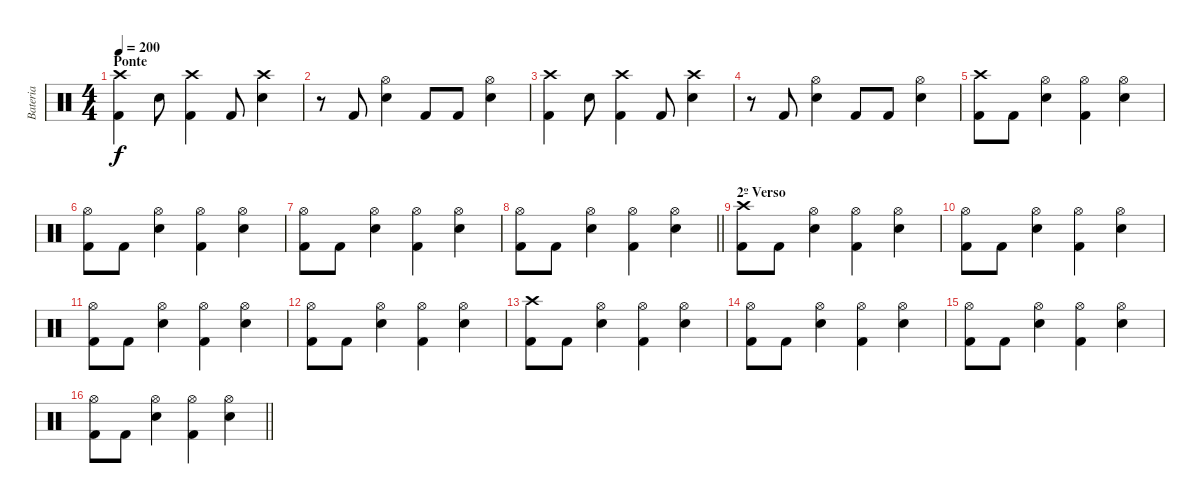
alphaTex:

\track ("Bateria" "Bateria") {instrument percussion}
\staff {score}
\articulation defaults
\ts (4 4)
\section ("" "Ponte")
\tempo 200
\clef neutral
\ks c
("Crash high (hit)" "Kick (hit) 2").4{dy f} "Electric Snare (hit)".8 ("Crash high (hit)" "Kick (hit) 2").4 "Kick (hit) 2".8 ("Crash high (hit)" "Electric Snare (hit)").4 |
r.8 "Kick (hit) 2".8 ("Hi-Hat (open)" "Electric Snare (hit)").4 "Kick (hit) 2".8 "Kick (hit) 2".8 ("Hi-Hat (open)" "Electric Snare (hit)").4 |
("Crash high (hit)" "Kick (hit) 2").4 "Electric Snare (hit)".8 ("Crash high (hit)" "Kick (hit) 2").4 "Kick (hit) 2".8 ("Crash high (hit)" "Electric Snare (hit)").4 |
r.8 "Kick (hit) 2".8 ("Hi-Hat (open)" "Electric Snare (hit)").4 "Kick (hit) 2".8 "Kick (hit) 2".8 ("Hi-Hat (open)" "Electric Snare (hit)").4 |
("Crash high (hit)" "Kick (hit) 2").8 "Kick (hit) 2".8 ("Hi-Hat (open)" "Electric Snare (hit)").4 ("Hi-Hat (open)" "Kick (hit) 2").4 ("Hi-Hat (open)" "Electric Snare (hit)").4 |
("Hi-Hat (open)" "Kick (hit) 2").8 "Kick (hit) 2".8 ("Hi-Hat (open)" "Electric Snare (hit)").4 ("Hi-Hat (open)" "Kick (hit) 2").4 ("Hi-Hat (open)" "Electric Snare (hit)").4 |
("Hi-Hat (open)" "Kick (hit) 2").8 "Kick (hit) 2".8 ("Hi-Hat (open)" "Electric Snare (hit)").4 ("Hi-Hat (open)" "Kick (hit) 2").4 ("Hi-Hat (open)" "Electric Snare (hit)").4 |
\barLineRight lightlight
("Hi-Hat (open)" "Kick (hit) 2").8 "Kick (hit) 2".8 ("Hi-Hat (open)" "Electric Snare (hit)").4 ("Hi-Hat (open)" "Kick (hit) 2").4 ("Hi-Hat (open)" "Electric Snare (hit)").4 |
\section ("" "2º Verso")
("Crash high (hit)" "Kick (hit) 2").8 "Kick (hit) 2".8 ("Hi-Hat (open)" "Electric Snare (hit)").4 ("Hi-Hat (open)" "Kick (hit) 2").4 ("Hi-Hat (open)" "Electric Snare (hit)").4 |
("Hi-Hat (open)" "Kick (hit) 2").8 "Kick (hit) 2".8 ("Hi-Hat (open)" "Electric Snare (hit)").4 ("Hi-Hat (open)" "Kick (hit) 2").4 ("Hi-Hat (open)" "Electric Snare (hit)").4 |
("Hi-Hat (open)" "Kick (hit) 2").8 "Kick (hit) 2".8 ("Hi-Hat (open)" "Electric Snare (hit)").4 ("Hi-Hat (open)" "Kick (hit) 2").4 ("Hi-Hat (open)" "Electric Snare (hit)").4 |
("Hi-Hat (open)" "Kick (hit) 2").8 "Kick (hit) 2".8 ("Hi-Hat (open)" "Electric Snare (hit)").4 ("Hi-Hat (open)" "Kick (hit) 2").4 ("Hi-Hat (open)" "Electric Snare (hit)").4 |
("Crash high (hit)" "Kick (hit) 2").8 "Kick (hit) 2".8 ("Hi-Hat (open)" "Electric Snare (hit)").4 ("Hi-Hat (open)" "Kick (hit) 2").4 ("Hi-Hat (open)" "Electric Snare (hit)").4 |
("Hi-Hat (open)" "Kick (hit) 2").8 "Kick (hit) 2".8 ("Hi-Hat (open)" "Electric Snare (hit)").4 ("Hi-Hat (open)" "Kick (hit) 2").4 ("Hi-Hat (open)" "Electric Snare (hit)").4 |
("Hi-Hat (open)" "Kick (hit) 2").8 "Kick (hit) 2".8 ("Hi-Hat (open)" "Electric Snare (hit)").4 ("Hi-Hat (open)" "Kick (hit) 2").4 ("Hi-Hat (open)" "Electric Snare (hit)").4 |
\barLineRight lightlight
("Hi-Hat (open)" "Kick (hit) 2").8 "Kick (hit) 2".8 ("Hi-Hat (open)" "Electric Snare (hit)").4 ("Hi-Hat (open)" "Kick (hit) 2").4 ("Hi-Hat (open)" "Electric Snare (hit)").4
